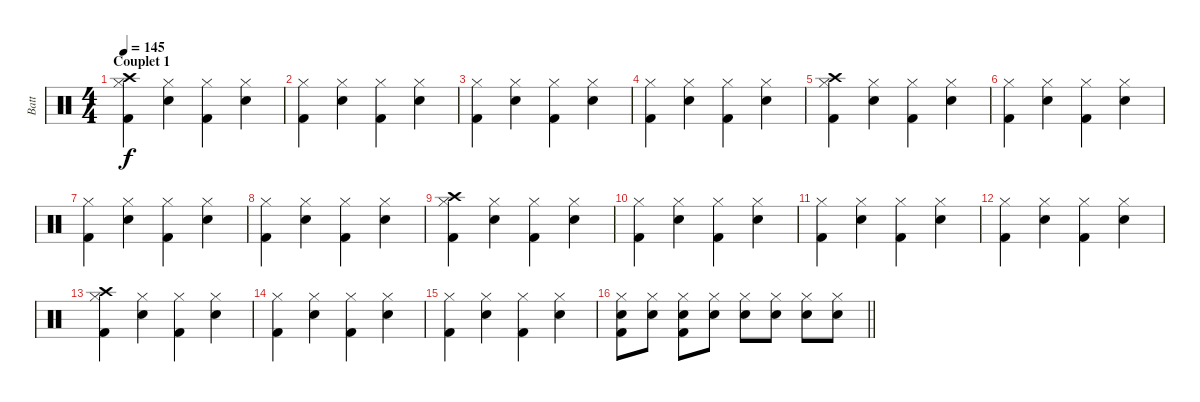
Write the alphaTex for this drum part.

\track ("Batt" "Batt") {instrument percussion}
\staff {score}
\articulation defaults
\ts (4 4)
\section ("" "Couplet 1")
\tempo 145
\clef neutral
\ks c
("Crash high (hit)" "Hi-Hat (closed)" "Kick (hit) 2").4{dy f} ("Hi-Hat (closed)" "Snare (hit) 2").4 ("Hi-Hat (closed)" "Kick (hit) 2").4 ("Hi-Hat (closed)" "Snare (hit) 2").4 |
("Hi-Hat (closed)" "Kick (hit) 2").4 ("Hi-Hat (closed)" "Snare (hit) 2").4 ("Hi-Hat (closed)" "Kick (hit) 2").4 ("Hi-Hat (closed)" "Snare (hit) 2").4 |
("Hi-Hat (closed)" "Kick (hit) 2").4 ("Hi-Hat (closed)" "Snare (hit) 2").4 ("Hi-Hat (closed)" "Kick (hit) 2").4 ("Hi-Hat (closed)" "Snare (hit) 2").4 |
("Hi-Hat (closed)" "Kick (hit) 2").4 ("Hi-Hat (closed)" "Snare (hit) 2").4 ("Hi-Hat (closed)" "Kick (hit) 2").4 ("Hi-Hat (closed)" "Snare (hit) 2").4 |
("Crash high (hit)" "Hi-Hat (closed)" "Kick (hit) 2").4 ("Hi-Hat (closed)" "Snare (hit) 2").4 ("Hi-Hat (closed)" "Kick (hit) 2").4 ("Hi-Hat (closed)" "Snare (hit) 2").4 |
("Hi-Hat (closed)" "Kick (hit) 2").4 ("Hi-Hat (closed)" "Snare (hit) 2").4 ("Hi-Hat (closed)" "Kick (hit) 2").4 ("Hi-Hat (closed)" "Snare (hit) 2").4 |
("Hi-Hat (closed)" "Kick (hit) 2").4 ("Hi-Hat (closed)" "Snare (hit) 2").4 ("Hi-Hat (closed)" "Kick (hit) 2").4 ("Hi-Hat (closed)" "Snare (hit) 2").4 |
("Hi-Hat (closed)" "Kick (hit) 2").4 ("Hi-Hat (closed)" "Snare (hit) 2").4 ("Hi-Hat (closed)" "Kick (hit) 2").4 ("Hi-Hat (closed)" "Snare (hit) 2").4 |
("Crash high (hit)" "Hi-Hat (closed)" "Kick (hit) 2").4 ("Hi-Hat (closed)" "Snare (hit) 2").4 ("Hi-Hat (closed)" "Kick (hit) 2").4 ("Hi-Hat (closed)" "Snare (hit) 2").4 |
("Hi-Hat (closed)" "Kick (hit) 2").4 ("Hi-Hat (closed)" "Snare (hit) 2").4 ("Hi-Hat (closed)" "Kick (hit) 2").4 ("Hi-Hat (closed)" "Snare (hit) 2").4 |
("Hi-Hat (closed)" "Kick (hit) 2").4 ("Hi-Hat (closed)" "Snare (hit) 2").4 ("Hi-Hat (closed)" "Kick (hit) 2").4 ("Hi-Hat (closed)" "Snare (hit) 2").4 |
("Hi-Hat (closed)" "Kick (hit) 2").4 ("Hi-Hat (closed)" "Snare (hit) 2").4 ("Hi-Hat (closed)" "Kick (hit) 2").4 ("Hi-Hat (closed)" "Snare (hit) 2").4 |
("Crash high (hit)" "Hi-Hat (closed)" "Kick (hit) 2").4 ("Hi-Hat (closed)" "Snare (hit) 2").4 ("Hi-Hat (closed)" "Kick (hit) 2").4 ("Hi-Hat (closed)" "Snare (hit) 2").4 |
("Hi-Hat (closed)" "Kick (hit) 2").4 ("Hi-Hat (closed)" "Snare (hit) 2").4 ("Hi-Hat (closed)" "Kick (hit) 2").4 ("Hi-Hat (closed)" "Snare (hit) 2").4 |
("Hi-Hat (closed)" "Kick (hit) 2").4 ("Hi-Hat (closed)" "Snare (hit) 2").4 ("Hi-Hat (closed)" "Kick (hit) 2").4 ("Hi-Hat (closed)" "Snare (hit) 2").4 |
\barLineRight lightlight
("Hi-Hat (closed)" "Snare (hit) 2" "Kick (hit) 2").8 ("Hi-Hat (closed)" "Snare (hit) 2").8 ("Hi-Hat (closed)" "Snare (hit) 2" "Kick (hit) 2").8 ("Hi-Hat (closed)" "Snare (hit) 2").8 ("Hi-Hat (closed)" "Snare (hit) 2").8 ("Hi-Hat (closed)" "Snare (hit) 2").8 ("Hi-Hat (closed)" "Snare (hit) 2").8 ("Hi-Hat (closed)" "Snare (hit) 2").8
